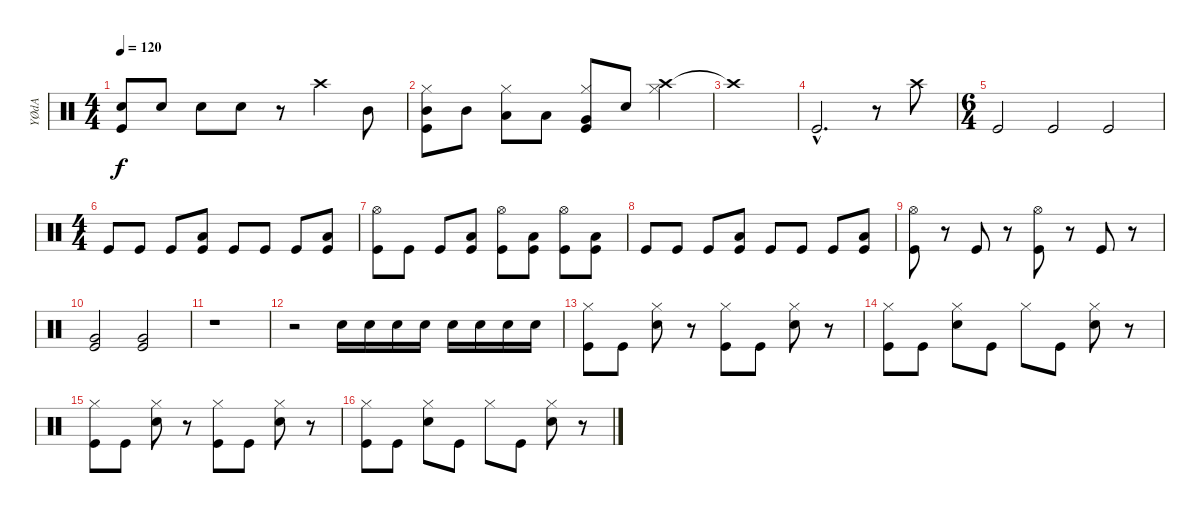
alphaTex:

\track ("YØdA" "YØdA") {instrument percussion}
\staff {score}
\articulation defaults
\ts (4 4)
\tempo 120
\clef neutral
\ks c
("Electric Snare (hit)" "Kick (hit)").8{dy f} "Electric Snare (hit)".8 "Electric Snare (hit)".8 "Electric Snare (hit)".8 r.8 "Crash high (hit)".4 "Mid Tom (hit)".8 |
("Hi-Hat (closed)" "Mid Tom (hit)" "Kick (hit)").8 "Mid Tom (hit)".8 ("Hi-Hat (closed)" "Low Tom (hit)").8 "Low Tom (hit)".8 ("Hi-Hat (closed)" "Very Low Tom (hit)" "Kick (hit)").8 "Electric Snare (hit)".8 ("Crash high (hit)" "Hi-Hat (closed)").4 |
"Crash high (hit)"{t}.1 |
"Kick (hit)"{hac}.2{d} r.8 "Crash high (hit)".8 |
\ts (6 4)
"Kick (hit)".2 "Kick (hit)".2 "Kick (hit)".2 |
\ts (4 4)
"Kick (hit)".8 "Kick (hit)".8 "Kick (hit)".8 ("Low Tom (hit)" "Kick (hit)").8 "Kick (hit)".8 "Kick (hit)".8 "Kick (hit)".8 ("Low Tom (hit)" "Kick (hit)").8 |
("Hi-Hat (open)" "Kick (hit)").8 "Kick (hit)".8 "Kick (hit)".8 ("Low Tom (hit)" "Kick (hit)").8 ("Hi-Hat (open)" "Kick (hit)").8 ("Low Tom (hit)" "Kick (hit)").8 ("Hi-Hat (open)" "Kick (hit)").8 ("Low Tom (hit)" "Kick (hit)").8 |
"Kick (hit)".8 "Kick (hit)".8 "Kick (hit)".8 ("Low Tom (hit)" "Kick (hit)").8 "Kick (hit)".8 "Kick (hit)".8 "Kick (hit)".8 ("Low Tom (hit)" "Kick (hit)").8 |
("Hi-Hat (open)" "Kick (hit)").8 r.8 "Kick (hit)".8 r.8 ("Hi-Hat (open)" "Kick (hit)").8 r.8 "Kick (hit)".8 r.8 |
("Very Low Tom (hit)" "Kick (hit)").2 ("Very Low Tom (hit)" "Kick (hit)").2 |
r.1 |
r.2 "Electric Snare (hit)".16 "Electric Snare (hit)".16 "Electric Snare (hit)".16 "Electric Snare (hit)".16 "Electric Snare (hit)".16 "Electric Snare (hit)".16 "Electric Snare (hit)".16 "Electric Snare (hit)".16 |
("Hi-Hat (closed)" "Kick (hit)").8 "Kick (hit)".8 ("Hi-Hat (closed)" "Electric Snare (hit)").8 r.8 ("Hi-Hat (closed)" "Kick (hit)").8 "Kick (hit)".8 ("Hi-Hat (closed)" "Electric Snare (hit)").8 r.8 |
("Hi-Hat (closed)" "Kick (hit)").8 "Kick (hit)".8 ("Hi-Hat (closed)" "Electric Snare (hit)").8 "Kick (hit)".8 "Hi-Hat (closed)".8 "Kick (hit)".8 ("Hi-Hat (closed)" "Electric Snare (hit)").8 r.8 |
("Hi-Hat (closed)" "Kick (hit)").8 "Kick (hit)".8 ("Hi-Hat (closed)" "Electric Snare (hit)").8 r.8 ("Hi-Hat (closed)" "Kick (hit)").8 "Kick (hit)".8 ("Hi-Hat (closed)" "Electric Snare (hit)").8 r.8 |
("Hi-Hat (closed)" "Kick (hit)").8 "Kick (hit)".8 ("Hi-Hat (closed)" "Electric Snare (hit)").8 "Kick (hit)".8 "Hi-Hat (closed)".8 "Kick (hit)".8 ("Hi-Hat (closed)" "Electric Snare (hit)").8 r.8
